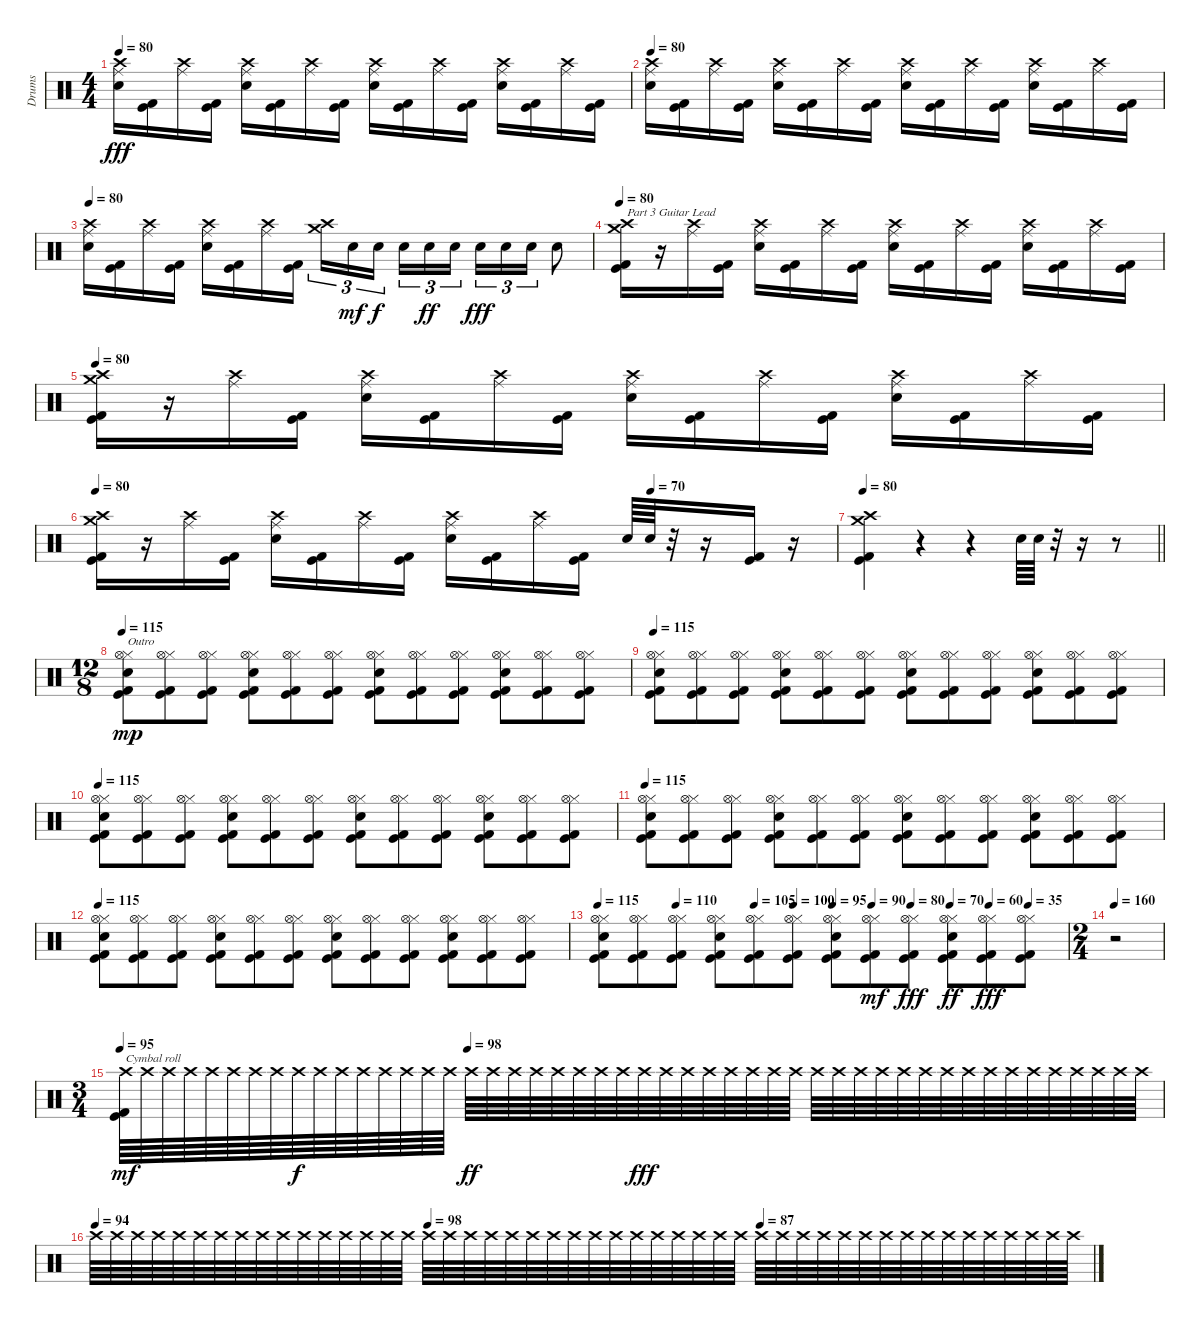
\track ("Drums" "Drums") {instrument percussion}
\staff {score}
\articulation defaults
\ts (4 4)
\tempo 80
\clef neutral
\ks c
("Electric Snare (hit)" "Crash high (hit)" "Ride (middle)").16{dy fff} ("Kick (hit)" "Kick (hit) 2").16 ("Crash high (hit)" "Ride (middle)").16 ("Kick (hit)" "Kick (hit) 2").16 ("Electric Snare (hit)" "Crash high (hit)" "Ride (middle)").16 ("Kick (hit)" "Kick (hit) 2").16 ("Crash high (hit)" "Ride (middle)").16 ("Kick (hit)" "Kick (hit) 2").16 ("Electric Snare (hit)" "Crash high (hit)" "Ride (middle)").16 ("Kick (hit)" "Kick (hit) 2").16 ("Crash high (hit)" "Ride (middle)").16 ("Kick (hit)" "Kick (hit) 2").16 ("Electric Snare (hit)" "Crash high (hit)" "Ride (middle)").16 ("Kick (hit)" "Kick (hit) 2").16 ("Crash high (hit)" "Ride (middle)").16 ("Kick (hit)" "Kick (hit) 2").16 |
\tempo 80
("Electric Snare (hit)" "Crash high (hit)" "Ride (middle)").16 ("Kick (hit)" "Kick (hit) 2").16 ("Crash high (hit)" "Ride (middle)").16 ("Kick (hit)" "Kick (hit) 2").16 ("Electric Snare (hit)" "Crash high (hit)" "Ride (middle)").16 ("Kick (hit)" "Kick (hit) 2").16 ("Crash high (hit)" "Ride (middle)").16 ("Kick (hit)" "Kick (hit) 2").16 ("Electric Snare (hit)" "Crash high (hit)" "Ride (middle)").16 ("Kick (hit)" "Kick (hit) 2").16 ("Crash high (hit)" "Ride (middle)").16 ("Kick (hit)" "Kick (hit) 2").16 ("Electric Snare (hit)" "Crash high (hit)" "Ride (middle)").16 ("Kick (hit)" "Kick (hit) 2").16 ("Crash high (hit)" "Ride (middle)").16 ("Kick (hit)" "Kick (hit) 2").16 |
\tempo 80
("Electric Snare (hit)" "Crash high (hit)" "Ride (middle)").16 ("Kick (hit)" "Kick (hit) 2").16 ("Crash high (hit)" "Ride (middle)").16 ("Kick (hit)" "Kick (hit) 2").16 ("Electric Snare (hit)" "Crash high (hit)" "Ride (middle)").16 ("Kick (hit)" "Kick (hit) 2").16 ("Crash high (hit)" "Ride (middle)").16 ("Kick (hit)" "Kick (hit) 2").16 ("Crash high (hit)" "Crash medium (hit)").16{tu (3 2)} "Electric Snare (hit)".16{tu (3 2) dy mf} "Electric Snare (hit)".16{tu (3 2) dy f} "Electric Snare (hit)".16{tu (3 2)} "Electric Snare (hit)".16{tu (3 2) dy ff} "Electric Snare (hit)".16{tu (3 2)} "Electric Snare (hit)".16{tu (3 2) dy fff} "Electric Snare (hit)".16{tu (3 2)} "Electric Snare (hit)".16{tu (3 2)} "Electric Snare (hit)".8 |
\tempo 80
("Kick (hit)" "Kick (hit) 2" "Crash high (hit)" "Crash medium (hit)").16{txt "Part 3 Guitar Lead"} r.16 ("Crash high (hit)" "Ride (middle)").16 ("Kick (hit)" "Kick (hit) 2").16 ("Electric Snare (hit)" "Crash high (hit)" "Ride (middle)").16 ("Kick (hit)" "Kick (hit) 2").16 ("Crash high (hit)" "Ride (middle)").16 ("Kick (hit)" "Kick (hit) 2").16 ("Electric Snare (hit)" "Crash high (hit)" "Ride (middle)").16 ("Kick (hit)" "Kick (hit) 2").16 ("Crash high (hit)" "Ride (middle)").16 ("Kick (hit)" "Kick (hit) 2").16 ("Electric Snare (hit)" "Crash high (hit)" "Ride (middle)").16 ("Kick (hit)" "Kick (hit) 2").16 ("Crash high (hit)" "Ride (middle)").16 ("Kick (hit)" "Kick (hit) 2").16 |
\tempo 80
("Kick (hit)" "Kick (hit) 2" "Crash high (hit)" "Crash medium (hit)").16 r.16 ("Crash high (hit)" "Ride (middle)").16 ("Kick (hit)" "Kick (hit) 2").16 ("Electric Snare (hit)" "Crash high (hit)" "Ride (middle)").16 ("Kick (hit)" "Kick (hit) 2").16 ("Crash high (hit)" "Ride (middle)").16 ("Kick (hit)" "Kick (hit) 2").16 ("Electric Snare (hit)" "Crash high (hit)" "Ride (middle)").16 ("Kick (hit)" "Kick (hit) 2").16 ("Crash high (hit)" "Ride (middle)").16 ("Kick (hit)" "Kick (hit) 2").16 ("Electric Snare (hit)" "Crash high (hit)" "Ride (middle)").16 ("Kick (hit)" "Kick (hit) 2").16 ("Crash high (hit)" "Ride (middle)").16 ("Kick (hit)" "Kick (hit) 2").16 |
\tempo 80
\tempo (70 0.75)
("Kick (hit)" "Kick (hit) 2" "Crash high (hit)" "Crash medium (hit)").16 r.16 ("Crash high (hit)" "Ride (middle)").16 ("Kick (hit)" "Kick (hit) 2").16 ("Electric Snare (hit)" "Crash high (hit)" "Ride (middle)").16 ("Kick (hit)" "Kick (hit) 2").16 ("Crash high (hit)" "Ride (middle)").16 ("Kick (hit)" "Kick (hit) 2").16 ("Electric Snare (hit)" "Crash high (hit)" "Ride (middle)").16 ("Kick (hit)" "Kick (hit) 2").16 ("Crash high (hit)" "Ride (middle)").16 ("Kick (hit)" "Kick (hit) 2").16 "Electric Snare (hit)".64 "Electric Snare (hit)".64 r.32 r.16 ("Kick (hit)" "Kick (hit) 2").16 r.16 |
\tempo 80
\barLineRight lightlight
("Kick (hit)" "Kick (hit) 2" "Crash high (hit)" "Crash medium (hit)").4 r.4 r.4 "Electric Snare (hit)".64 "Electric Snare (hit)".64 r.32 r.16 r.8 |
\ts (12 8)
\tempo 115
("Electric Snare (hit)" "Kick (hit)" "Kick (hit) 2" "Hi-Hat (closed)" "Hi-Hat (open)").8{txt "Outro" dy mp} ("Kick (hit)" "Kick (hit) 2" "Hi-Hat (closed)" "Hi-Hat (open)").8 ("Kick (hit)" "Kick (hit) 2" "Hi-Hat (closed)" "Hi-Hat (open)").8 ("Electric Snare (hit)" "Kick (hit)" "Kick (hit) 2" "Hi-Hat (closed)" "Hi-Hat (open)").8 ("Kick (hit)" "Kick (hit) 2" "Hi-Hat (closed)" "Hi-Hat (open)").8 ("Kick (hit)" "Kick (hit) 2" "Hi-Hat (closed)" "Hi-Hat (open)").8 ("Electric Snare (hit)" "Kick (hit)" "Kick (hit) 2" "Hi-Hat (closed)" "Hi-Hat (open)").8 ("Kick (hit)" "Kick (hit) 2" "Hi-Hat (closed)" "Hi-Hat (open)").8 ("Kick (hit)" "Kick (hit) 2" "Hi-Hat (closed)" "Hi-Hat (open)").8 ("Electric Snare (hit)" "Kick (hit)" "Kick (hit) 2" "Hi-Hat (closed)" "Hi-Hat (open)").8 ("Kick (hit)" "Kick (hit) 2" "Hi-Hat (closed)" "Hi-Hat (open)").8 ("Kick (hit)" "Kick (hit) 2" "Hi-Hat (closed)" "Hi-Hat (open)").8 |
\tempo 115
("Electric Snare (hit)" "Kick (hit)" "Kick (hit) 2" "Hi-Hat (closed)" "Hi-Hat (open)").8 ("Kick (hit)" "Kick (hit) 2" "Hi-Hat (closed)" "Hi-Hat (open)").8 ("Kick (hit)" "Kick (hit) 2" "Hi-Hat (closed)" "Hi-Hat (open)").8 ("Electric Snare (hit)" "Kick (hit)" "Kick (hit) 2" "Hi-Hat (closed)" "Hi-Hat (open)").8 ("Kick (hit)" "Kick (hit) 2" "Hi-Hat (closed)" "Hi-Hat (open)").8 ("Kick (hit)" "Kick (hit) 2" "Hi-Hat (closed)" "Hi-Hat (open)").8 ("Electric Snare (hit)" "Kick (hit)" "Kick (hit) 2" "Hi-Hat (closed)" "Hi-Hat (open)").8 ("Kick (hit)" "Kick (hit) 2" "Hi-Hat (closed)" "Hi-Hat (open)").8 ("Kick (hit)" "Kick (hit) 2" "Hi-Hat (closed)" "Hi-Hat (open)").8 ("Electric Snare (hit)" "Kick (hit)" "Kick (hit) 2" "Hi-Hat (closed)" "Hi-Hat (open)").8 ("Kick (hit)" "Kick (hit) 2" "Hi-Hat (closed)" "Hi-Hat (open)").8 ("Kick (hit)" "Kick (hit) 2" "Hi-Hat (closed)" "Hi-Hat (open)").8 |
\tempo 115
("Electric Snare (hit)" "Kick (hit)" "Kick (hit) 2" "Hi-Hat (closed)" "Hi-Hat (open)").8 ("Kick (hit)" "Kick (hit) 2" "Hi-Hat (closed)" "Hi-Hat (open)").8 ("Kick (hit)" "Kick (hit) 2" "Hi-Hat (closed)" "Hi-Hat (open)").8 ("Electric Snare (hit)" "Kick (hit)" "Kick (hit) 2" "Hi-Hat (closed)" "Hi-Hat (open)").8 ("Kick (hit)" "Kick (hit) 2" "Hi-Hat (closed)" "Hi-Hat (open)").8 ("Kick (hit)" "Kick (hit) 2" "Hi-Hat (closed)" "Hi-Hat (open)").8 ("Electric Snare (hit)" "Kick (hit)" "Kick (hit) 2" "Hi-Hat (closed)" "Hi-Hat (open)").8 ("Kick (hit)" "Kick (hit) 2" "Hi-Hat (closed)" "Hi-Hat (open)").8 ("Kick (hit)" "Kick (hit) 2" "Hi-Hat (closed)" "Hi-Hat (open)").8 ("Electric Snare (hit)" "Kick (hit)" "Kick (hit) 2" "Hi-Hat (closed)" "Hi-Hat (open)").8 ("Kick (hit)" "Kick (hit) 2" "Hi-Hat (closed)" "Hi-Hat (open)").8 ("Kick (hit)" "Kick (hit) 2" "Hi-Hat (closed)" "Hi-Hat (open)").8 |
\tempo 115
("Electric Snare (hit)" "Kick (hit)" "Kick (hit) 2" "Hi-Hat (closed)" "Hi-Hat (open)").8 ("Kick (hit)" "Kick (hit) 2" "Hi-Hat (closed)" "Hi-Hat (open)").8 ("Kick (hit)" "Kick (hit) 2" "Hi-Hat (closed)" "Hi-Hat (open)").8 ("Electric Snare (hit)" "Kick (hit)" "Kick (hit) 2" "Hi-Hat (closed)" "Hi-Hat (open)").8 ("Kick (hit)" "Kick (hit) 2" "Hi-Hat (closed)" "Hi-Hat (open)").8 ("Kick (hit)" "Kick (hit) 2" "Hi-Hat (closed)" "Hi-Hat (open)").8 ("Electric Snare (hit)" "Kick (hit)" "Kick (hit) 2" "Hi-Hat (closed)" "Hi-Hat (open)").8 ("Kick (hit)" "Kick (hit) 2" "Hi-Hat (closed)" "Hi-Hat (open)").8 ("Kick (hit)" "Kick (hit) 2" "Hi-Hat (closed)" "Hi-Hat (open)").8 ("Electric Snare (hit)" "Kick (hit)" "Kick (hit) 2" "Hi-Hat (closed)" "Hi-Hat (open)").8 ("Kick (hit)" "Kick (hit) 2" "Hi-Hat (closed)" "Hi-Hat (open)").8 ("Kick (hit)" "Kick (hit) 2" "Hi-Hat (closed)" "Hi-Hat (open)").8 |
\tempo 115
("Electric Snare (hit)" "Kick (hit)" "Kick (hit) 2" "Hi-Hat (closed)" "Hi-Hat (open)").8 ("Kick (hit)" "Kick (hit) 2" "Hi-Hat (closed)" "Hi-Hat (open)").8 ("Kick (hit)" "Kick (hit) 2" "Hi-Hat (closed)" "Hi-Hat (open)").8 ("Electric Snare (hit)" "Kick (hit)" "Kick (hit) 2" "Hi-Hat (closed)" "Hi-Hat (open)").8 ("Kick (hit)" "Kick (hit) 2" "Hi-Hat (closed)" "Hi-Hat (open)").8 ("Kick (hit)" "Kick (hit) 2" "Hi-Hat (closed)" "Hi-Hat (open)").8 ("Electric Snare (hit)" "Kick (hit)" "Kick (hit) 2" "Hi-Hat (closed)" "Hi-Hat (open)").8 ("Kick (hit)" "Kick (hit) 2" "Hi-Hat (closed)" "Hi-Hat (open)").8 ("Kick (hit)" "Kick (hit) 2" "Hi-Hat (closed)" "Hi-Hat (open)").8 ("Electric Snare (hit)" "Kick (hit)" "Kick (hit) 2" "Hi-Hat (closed)" "Hi-Hat (open)").8 ("Kick (hit)" "Kick (hit) 2" "Hi-Hat (closed)" "Hi-Hat (open)").8 ("Kick (hit)" "Kick (hit) 2" "Hi-Hat (closed)" "Hi-Hat (open)").8 |
\tempo 115
\tempo (110 0.16666666666666666)
\tempo (105 0.3333333333333333)
\tempo (100 0.4166666666666667)
\tempo (95 0.5)
\tempo (90 0.5833333333333334)
\tempo (80 0.6666666666666666)
\tempo (70 0.75)
\tempo (60 0.8333333333333334)
\tempo (35 0.9166666666666666)
("Electric Snare (hit)" "Kick (hit)" "Kick (hit) 2" "Hi-Hat (closed)" "Hi-Hat (open)").8 ("Kick (hit)" "Kick (hit) 2" "Hi-Hat (closed)" "Hi-Hat (open)").8 ("Kick (hit)" "Kick (hit) 2" "Hi-Hat (closed)" "Hi-Hat (open)").8 ("Electric Snare (hit)" "Kick (hit)" "Kick (hit) 2" "Hi-Hat (closed)" "Hi-Hat (open)").8 ("Kick (hit)" "Kick (hit) 2" "Hi-Hat (closed)" "Hi-Hat (open)").8 ("Kick (hit)" "Kick (hit) 2" "Hi-Hat (closed)" "Hi-Hat (open)").8 ("Electric Snare (hit)" "Kick (hit)" "Kick (hit) 2" "Hi-Hat (closed)" "Hi-Hat (open)").8 ("Kick (hit)" "Kick (hit) 2" "Hi-Hat (closed)" "Hi-Hat (open)").8{dy mf} ("Kick (hit)" "Kick (hit) 2" "Hi-Hat (closed)" "Hi-Hat (open)").8{dy fff} ("Electric Snare (hit)" "Kick (hit)" "Kick (hit) 2" "Hi-Hat (closed)" "Hi-Hat (open)").8{dy ff} ("Kick (hit)" "Kick (hit) 2" "Hi-Hat (closed)" "Hi-Hat (open)").8{dy fff} ("Kick (hit)" "Kick (hit) 2" "Hi-Hat (closed)" "Hi-Hat (open)").8 |
\ts (2 4)
\tempo 160
r.2 |
\ts (3 4)
\tempo 95
\tempo (98 0.3333333333333333)
("Kick (hit)" "Kick (hit) 2" "Crash high (hit)").64{txt "Cymbal roll" dy mf balance 8} "Crash high (hit)".64{balance 4} "Crash high (hit)".64 "Crash high (hit)".64 "Crash high (hit)".64 "Crash high (hit)".64 "Crash high (hit)".64 "Crash high (hit)".64 "Crash high (hit)".64{dy f} "Crash high (hit)".64 "Crash high (hit)".64 "Crash high (hit)".64 "Crash high (hit)".64 "Crash high (hit)".64 "Crash high (hit)".64 "Crash high (hit)".64 "Crash high (hit)".64{dy ff} "Crash high (hit)".64 "Crash high (hit)".64 "Crash high (hit)".64 "Crash high (hit)".64 "Crash high (hit)".64 "Crash high (hit)".64 "Crash high (hit)".64 "Crash high (hit)".64{dy fff} "Crash high (hit)".64 "Crash high (hit)".64 "Crash high (hit)".64 "Crash high (hit)".64 "Crash high (hit)".64 "Crash high (hit)".64 "Crash high (hit)".64 "Crash high (hit)".64 "Crash high (hit)".64 "Crash high (hit)".64 "Crash high (hit)".64 "Crash high (hit)".64 "Crash high (hit)".64 "Crash high (hit)".64 "Crash high (hit)".64 "Crash high (hit)".64 "Crash high (hit)".64 "Crash high (hit)".64 "Crash high (hit)".64 "Crash high (hit)".64 "Crash high (hit)".64 "Crash high (hit)".64 "Crash high (hit)".64 |
\tempo 94
\tempo (98 0.3333333333333333)
\tempo (87 0.6666666666666666)
"Crash high (hit)".64 "Crash high (hit)".64 "Crash high (hit)".64 "Crash high (hit)".64 "Crash high (hit)".64 "Crash high (hit)".64 "Crash high (hit)".64 "Crash high (hit)".64 "Crash high (hit)".64 "Crash high (hit)".64 "Crash high (hit)".64 "Crash high (hit)".64 "Crash high (hit)".64 "Crash high (hit)".64 "Crash high (hit)".64 "Crash high (hit)".64 "Crash high (hit)".64 "Crash high (hit)".64 "Crash high (hit)".64 "Crash high (hit)".64 "Crash high (hit)".64 "Crash high (hit)".64 "Crash high (hit)".64 "Crash high (hit)".64 "Crash high (hit)".64 "Crash high (hit)".64 "Crash high (hit)".64 "Crash high (hit)".64 "Crash high (hit)".64 "Crash high (hit)".64 "Crash high (hit)".64 "Crash high (hit)".64 "Crash high (hit)".64 "Crash high (hit)".64 "Crash high (hit)".64 "Crash high (hit)".64 "Crash high (hit)".64 "Crash high (hit)".64 "Crash high (hit)".64 "Crash high (hit)".64 "Crash high (hit)".64 "Crash high (hit)".64 "Crash high (hit)".64 "Crash high (hit)".64 "Crash high (hit)".64 "Crash high (hit)".64 "Crash high (hit)".64 "Crash high (hit)".64
